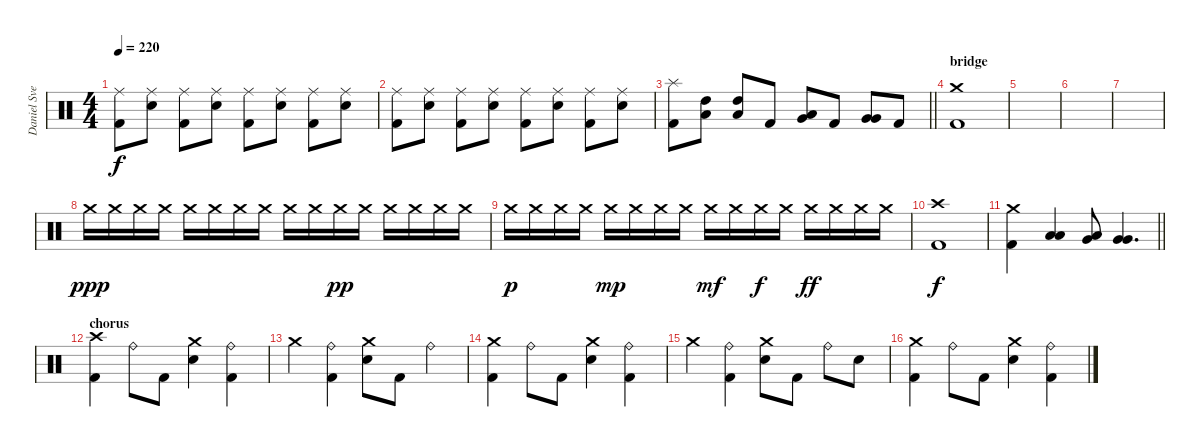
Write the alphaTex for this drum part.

\track ("Daniel Svensson" "Daniel Sve") {instrument percussion}
\staff {score}
\articulation defaults
\ts (4 4)
\tempo 220
\clef neutral
\ks c
("Ride (middle)" "Kick (hit) 2").8{dy f} ("Ride (middle)" "Electric Snare (hit)").8 ("Ride (middle)" "Kick (hit) 2").8 ("Ride (middle)" "Electric Snare (hit)").8 ("Ride (middle)" "Kick (hit) 2").8 ("Ride (middle)" "Electric Snare (hit)").8 ("Ride (middle)" "Kick (hit) 2").8 ("Ride (middle)" "Electric Snare (hit)").8 |
("Ride (middle)" "Kick (hit) 2").8 ("Ride (middle)" "Electric Snare (hit)").8 ("Ride (middle)" "Kick (hit) 2").8 ("Ride (middle)" "Electric Snare (hit)").8 ("Ride (middle)" "Kick (hit) 2").8 ("Ride (middle)" "Electric Snare (hit)").8 ("Ride (middle)" "Kick (hit) 2").8 ("Ride (middle)" "Electric Snare (hit)").8 |
\barLineRight lightlight
("Splash (hit)" "Kick (hit) 2").8 ("High Tom (hit)" "Low Tom (hit)").8 ("High Tom (hit)" "Low Tom (hit)").8 "Kick (hit) 2".8 ("Very Low Tom (hit)" "Low Tom (hit)").8 "Kick (hit) 2".8 ("Very Low Tom (hit)" "Very Low Tom (hit)").8 "Kick (hit) 2".8 |
\section ("" "bridge")
("Crash medium (hit)" "Kick (hit) 2").1 |
|
|
|
"Crash medium (hit)".16{dy ppp} "Crash medium (hit)".16 "Crash medium (hit)".16 "Crash medium (hit)".16 "Crash medium (hit)".16 "Crash medium (hit)".16 "Crash medium (hit)".16 "Crash medium (hit)".16 "Crash medium (hit)".16 "Crash medium (hit)".16 "Crash medium (hit)".16{dy pp} "Crash medium (hit)".16 "Crash medium (hit)".16 "Crash medium (hit)".16 "Crash medium (hit)".16 "Crash medium (hit)".16 |
"Crash medium (hit)".16{dy p} "Crash medium (hit)".16 "Crash medium (hit)".16 "Crash medium (hit)".16 "Crash medium (hit)".16{dy mp} "Crash medium (hit)".16 "Crash medium (hit)".16 "Crash medium (hit)".16 "Crash medium (hit)".16{dy mf} "Crash medium (hit)".16 "Crash medium (hit)".16{dy f} "Crash medium (hit)".16 "Crash medium (hit)".16{dy ff} "Crash medium (hit)".16 "Crash medium (hit)".16 "Crash medium (hit)".16 |
("Crash high (hit)" "Kick (hit) 2").1{dy f} |
\barLineRight lightlight
("Crash medium (hit)" "Kick (hit) 2").4 ("Low Tom (hit)" "Low Tom (hit)").4 ("Very Low Tom (hit)" "Low Tom (hit)").8 ("Very Low Tom (hit)" "Very Low Tom (hit)").4{d} |
\section ("" "chorus")
("Crash high (hit)" "Kick (hit) 2").4 "Ride (bell)".8 "Kick (hit) 2".8 ("Crash medium (hit)" "Electric Snare (hit)").4 ("Ride (bell)" "Kick (hit) 2").4 |
"Crash medium (hit)".4 ("Ride (bell)" "Kick (hit) 2").4 ("Crash medium (hit)" "Electric Snare (hit)").8 "Kick (hit) 2".8 "Ride (bell)".4 |
("Crash medium (hit)" "Kick (hit) 2").4 "Ride (bell)".8 "Kick (hit) 2".8 ("Crash medium (hit)" "Electric Snare (hit)").4 ("Ride (bell)" "Kick (hit) 2").4 |
"Crash medium (hit)".4 ("Ride (bell)" "Kick (hit) 2").4 ("Crash medium (hit)" "Electric Snare (hit)").8 "Kick (hit) 2".8 "Ride (bell)".8 "Electric Snare (hit)".8 |
("Crash medium (hit)" "Kick (hit) 2").4 "Ride (bell)".8 "Kick (hit) 2".8 ("Crash medium (hit)" "Electric Snare (hit)").4 ("Ride (bell)" "Kick (hit) 2").4
